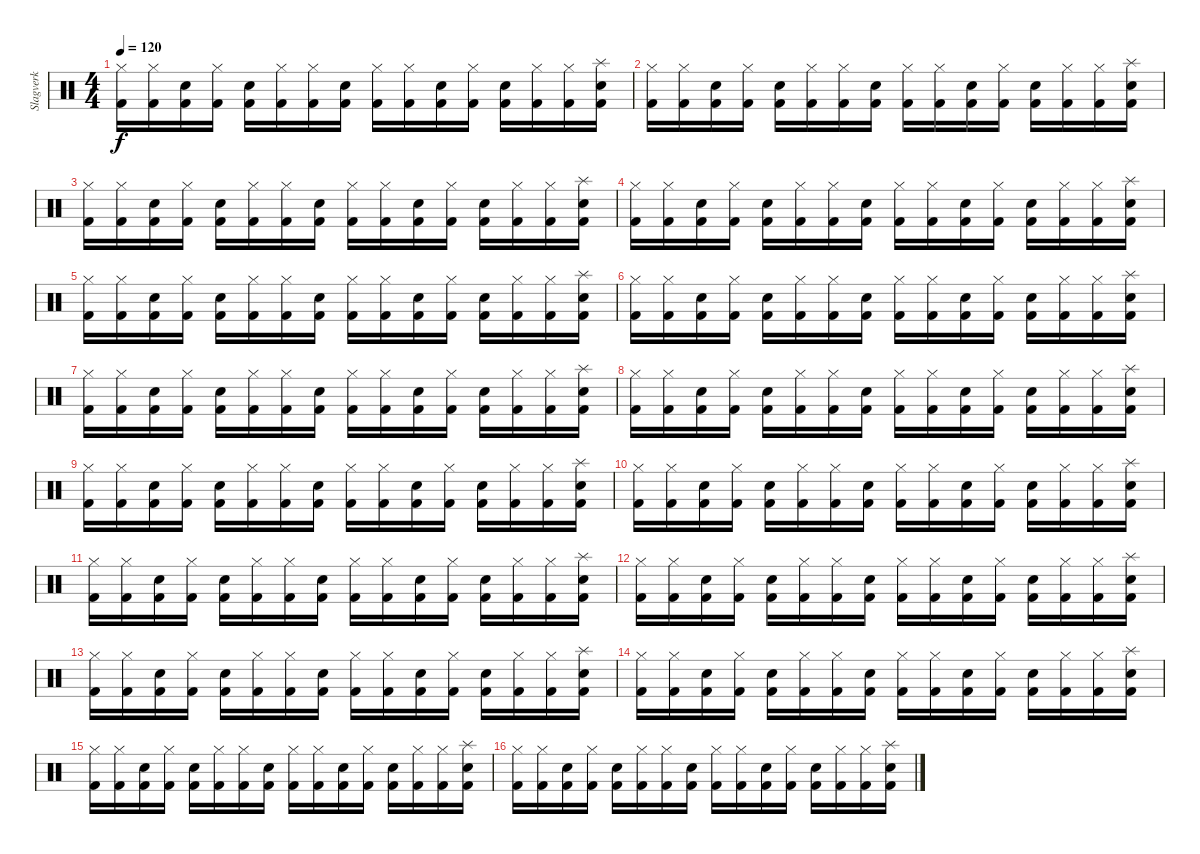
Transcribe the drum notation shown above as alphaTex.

\track ("Slagverk" "Slagverk") {instrument percussion}
\staff {score}
\articulation defaults
\ts (4 4)
\tempo 120
\clef neutral
\ks c
("Kick (hit) 2" "Hi-Hat (closed)").16{dy f} ("Kick (hit) 2" "Hi-Hat (closed)").16 ("Kick (hit) 2" "Snare (hit) 2").16 ("Kick (hit) 2" "Hi-Hat (closed)").16 ("Kick (hit) 2" "Snare (hit) 2").16 ("Kick (hit) 2" "Hi-Hat (closed)").16 ("Kick (hit) 2" "Hi-Hat (closed)").16 ("Kick (hit) 2" "Snare (hit) 2").16 ("Kick (hit) 2" "Hi-Hat (closed)").16 ("Kick (hit) 2" "Hi-Hat (closed)").16 ("Kick (hit) 2" "Snare (hit) 2").16 ("Kick (hit) 2" "Hi-Hat (closed)").16 ("Kick (hit) 2" "Snare (hit) 2").16 ("Kick (hit) 2" "Hi-Hat (closed)").16 ("Kick (hit) 2" "Hi-Hat (closed)").16 ("Kick (hit) 2" "Splash (hit)" "Snare (hit) 2").16 |
("Kick (hit) 2" "Hi-Hat (closed)").16 ("Kick (hit) 2" "Hi-Hat (closed)").16 ("Kick (hit) 2" "Snare (hit) 2").16 ("Kick (hit) 2" "Hi-Hat (closed)").16 ("Kick (hit) 2" "Snare (hit) 2").16 ("Kick (hit) 2" "Hi-Hat (closed)").16 ("Kick (hit) 2" "Hi-Hat (closed)").16 ("Kick (hit) 2" "Snare (hit) 2").16 ("Kick (hit) 2" "Hi-Hat (closed)").16 ("Kick (hit) 2" "Hi-Hat (closed)").16 ("Kick (hit) 2" "Snare (hit) 2").16 ("Kick (hit) 2" "Hi-Hat (closed)").16 ("Kick (hit) 2" "Snare (hit) 2").16 ("Kick (hit) 2" "Hi-Hat (closed)").16 ("Kick (hit) 2" "Hi-Hat (closed)").16 ("Kick (hit) 2" "Splash (hit)" "Snare (hit) 2").16 |
("Kick (hit) 2" "Hi-Hat (closed)").16 ("Kick (hit) 2" "Hi-Hat (closed)").16 ("Kick (hit) 2" "Snare (hit) 2").16 ("Kick (hit) 2" "Hi-Hat (closed)").16 ("Kick (hit) 2" "Snare (hit) 2").16 ("Kick (hit) 2" "Hi-Hat (closed)").16 ("Kick (hit) 2" "Hi-Hat (closed)").16 ("Kick (hit) 2" "Snare (hit) 2").16 ("Kick (hit) 2" "Hi-Hat (closed)").16 ("Kick (hit) 2" "Hi-Hat (closed)").16 ("Kick (hit) 2" "Snare (hit) 2").16 ("Kick (hit) 2" "Hi-Hat (closed)").16 ("Kick (hit) 2" "Snare (hit) 2").16 ("Kick (hit) 2" "Hi-Hat (closed)").16 ("Kick (hit) 2" "Hi-Hat (closed)").16 ("Kick (hit) 2" "Splash (hit)" "Snare (hit) 2").16 |
("Kick (hit) 2" "Hi-Hat (closed)").16 ("Kick (hit) 2" "Hi-Hat (closed)").16 ("Kick (hit) 2" "Snare (hit) 2").16 ("Kick (hit) 2" "Hi-Hat (closed)").16 ("Kick (hit) 2" "Snare (hit) 2").16 ("Kick (hit) 2" "Hi-Hat (closed)").16 ("Kick (hit) 2" "Hi-Hat (closed)").16 ("Kick (hit) 2" "Snare (hit) 2").16 ("Kick (hit) 2" "Hi-Hat (closed)").16 ("Kick (hit) 2" "Hi-Hat (closed)").16 ("Kick (hit) 2" "Snare (hit) 2").16 ("Kick (hit) 2" "Hi-Hat (closed)").16 ("Kick (hit) 2" "Snare (hit) 2").16 ("Kick (hit) 2" "Hi-Hat (closed)").16 ("Kick (hit) 2" "Hi-Hat (closed)").16 ("Kick (hit) 2" "Splash (hit)" "Snare (hit) 2").16 |
("Kick (hit) 2" "Hi-Hat (closed)").16 ("Kick (hit) 2" "Hi-Hat (closed)").16 ("Kick (hit) 2" "Snare (hit) 2").16 ("Kick (hit) 2" "Hi-Hat (closed)").16 ("Kick (hit) 2" "Snare (hit) 2").16 ("Kick (hit) 2" "Hi-Hat (closed)").16 ("Kick (hit) 2" "Hi-Hat (closed)").16 ("Kick (hit) 2" "Snare (hit) 2").16 ("Kick (hit) 2" "Hi-Hat (closed)").16 ("Kick (hit) 2" "Hi-Hat (closed)").16 ("Kick (hit) 2" "Snare (hit) 2").16 ("Kick (hit) 2" "Hi-Hat (closed)").16 ("Kick (hit) 2" "Snare (hit) 2").16 ("Kick (hit) 2" "Hi-Hat (closed)").16 ("Kick (hit) 2" "Hi-Hat (closed)").16 ("Kick (hit) 2" "Splash (hit)" "Snare (hit) 2").16 |
("Kick (hit) 2" "Hi-Hat (closed)").16 ("Kick (hit) 2" "Hi-Hat (closed)").16 ("Kick (hit) 2" "Snare (hit) 2").16 ("Kick (hit) 2" "Hi-Hat (closed)").16 ("Kick (hit) 2" "Snare (hit) 2").16 ("Kick (hit) 2" "Hi-Hat (closed)").16 ("Kick (hit) 2" "Hi-Hat (closed)").16 ("Kick (hit) 2" "Snare (hit) 2").16 ("Kick (hit) 2" "Hi-Hat (closed)").16 ("Kick (hit) 2" "Hi-Hat (closed)").16 ("Kick (hit) 2" "Snare (hit) 2").16 ("Kick (hit) 2" "Hi-Hat (closed)").16 ("Kick (hit) 2" "Snare (hit) 2").16 ("Kick (hit) 2" "Hi-Hat (closed)").16 ("Kick (hit) 2" "Hi-Hat (closed)").16 ("Kick (hit) 2" "Splash (hit)" "Snare (hit) 2").16 |
("Kick (hit) 2" "Hi-Hat (closed)").16 ("Kick (hit) 2" "Hi-Hat (closed)").16 ("Kick (hit) 2" "Snare (hit) 2").16 ("Kick (hit) 2" "Hi-Hat (closed)").16 ("Kick (hit) 2" "Snare (hit) 2").16 ("Kick (hit) 2" "Hi-Hat (closed)").16 ("Kick (hit) 2" "Hi-Hat (closed)").16 ("Kick (hit) 2" "Snare (hit) 2").16 ("Kick (hit) 2" "Hi-Hat (closed)").16 ("Kick (hit) 2" "Hi-Hat (closed)").16 ("Kick (hit) 2" "Snare (hit) 2").16 ("Kick (hit) 2" "Hi-Hat (closed)").16 ("Kick (hit) 2" "Snare (hit) 2").16 ("Kick (hit) 2" "Hi-Hat (closed)").16 ("Kick (hit) 2" "Hi-Hat (closed)").16 ("Kick (hit) 2" "Splash (hit)" "Snare (hit) 2").16 |
("Kick (hit) 2" "Hi-Hat (closed)").16 ("Kick (hit) 2" "Hi-Hat (closed)").16 ("Kick (hit) 2" "Snare (hit) 2").16 ("Kick (hit) 2" "Hi-Hat (closed)").16 ("Kick (hit) 2" "Snare (hit) 2").16 ("Kick (hit) 2" "Hi-Hat (closed)").16 ("Kick (hit) 2" "Hi-Hat (closed)").16 ("Kick (hit) 2" "Snare (hit) 2").16 ("Kick (hit) 2" "Hi-Hat (closed)").16 ("Kick (hit) 2" "Hi-Hat (closed)").16 ("Kick (hit) 2" "Snare (hit) 2").16 ("Kick (hit) 2" "Hi-Hat (closed)").16 ("Kick (hit) 2" "Snare (hit) 2").16 ("Kick (hit) 2" "Hi-Hat (closed)").16 ("Kick (hit) 2" "Hi-Hat (closed)").16 ("Kick (hit) 2" "Splash (hit)" "Snare (hit) 2").16 |
("Kick (hit) 2" "Hi-Hat (closed)").16 ("Kick (hit) 2" "Hi-Hat (closed)").16 ("Kick (hit) 2" "Snare (hit) 2").16 ("Kick (hit) 2" "Hi-Hat (closed)").16 ("Kick (hit) 2" "Snare (hit) 2").16 ("Kick (hit) 2" "Hi-Hat (closed)").16 ("Kick (hit) 2" "Hi-Hat (closed)").16 ("Kick (hit) 2" "Snare (hit) 2").16 ("Kick (hit) 2" "Hi-Hat (closed)").16 ("Kick (hit) 2" "Hi-Hat (closed)").16 ("Kick (hit) 2" "Snare (hit) 2").16 ("Kick (hit) 2" "Hi-Hat (closed)").16 ("Kick (hit) 2" "Snare (hit) 2").16 ("Kick (hit) 2" "Hi-Hat (closed)").16 ("Kick (hit) 2" "Hi-Hat (closed)").16 ("Kick (hit) 2" "Splash (hit)" "Snare (hit) 2").16 |
("Kick (hit) 2" "Hi-Hat (closed)").16 ("Kick (hit) 2" "Hi-Hat (closed)").16 ("Kick (hit) 2" "Snare (hit) 2").16 ("Kick (hit) 2" "Hi-Hat (closed)").16 ("Kick (hit) 2" "Snare (hit) 2").16 ("Kick (hit) 2" "Hi-Hat (closed)").16 ("Kick (hit) 2" "Hi-Hat (closed)").16 ("Kick (hit) 2" "Snare (hit) 2").16 ("Kick (hit) 2" "Hi-Hat (closed)").16 ("Kick (hit) 2" "Hi-Hat (closed)").16 ("Kick (hit) 2" "Snare (hit) 2").16 ("Kick (hit) 2" "Hi-Hat (closed)").16 ("Kick (hit) 2" "Snare (hit) 2").16 ("Kick (hit) 2" "Hi-Hat (closed)").16 ("Kick (hit) 2" "Hi-Hat (closed)").16 ("Kick (hit) 2" "Splash (hit)" "Snare (hit) 2").16 |
("Kick (hit) 2" "Hi-Hat (closed)").16 ("Kick (hit) 2" "Hi-Hat (closed)").16 ("Kick (hit) 2" "Snare (hit) 2").16 ("Kick (hit) 2" "Hi-Hat (closed)").16 ("Kick (hit) 2" "Snare (hit) 2").16 ("Kick (hit) 2" "Hi-Hat (closed)").16 ("Kick (hit) 2" "Hi-Hat (closed)").16 ("Kick (hit) 2" "Snare (hit) 2").16 ("Kick (hit) 2" "Hi-Hat (closed)").16 ("Kick (hit) 2" "Hi-Hat (closed)").16 ("Kick (hit) 2" "Snare (hit) 2").16 ("Kick (hit) 2" "Hi-Hat (closed)").16 ("Kick (hit) 2" "Snare (hit) 2").16 ("Kick (hit) 2" "Hi-Hat (closed)").16 ("Kick (hit) 2" "Hi-Hat (closed)").16 ("Kick (hit) 2" "Splash (hit)" "Snare (hit) 2").16 |
("Kick (hit) 2" "Hi-Hat (closed)").16 ("Kick (hit) 2" "Hi-Hat (closed)").16 ("Kick (hit) 2" "Snare (hit) 2").16 ("Kick (hit) 2" "Hi-Hat (closed)").16 ("Kick (hit) 2" "Snare (hit) 2").16 ("Kick (hit) 2" "Hi-Hat (closed)").16 ("Kick (hit) 2" "Hi-Hat (closed)").16 ("Kick (hit) 2" "Snare (hit) 2").16 ("Kick (hit) 2" "Hi-Hat (closed)").16 ("Kick (hit) 2" "Hi-Hat (closed)").16 ("Kick (hit) 2" "Snare (hit) 2").16 ("Kick (hit) 2" "Hi-Hat (closed)").16 ("Kick (hit) 2" "Snare (hit) 2").16 ("Kick (hit) 2" "Hi-Hat (closed)").16 ("Kick (hit) 2" "Hi-Hat (closed)").16 ("Kick (hit) 2" "Splash (hit)" "Snare (hit) 2").16 |
("Kick (hit) 2" "Hi-Hat (closed)").16 ("Kick (hit) 2" "Hi-Hat (closed)").16 ("Kick (hit) 2" "Snare (hit) 2").16 ("Kick (hit) 2" "Hi-Hat (closed)").16 ("Kick (hit) 2" "Snare (hit) 2").16 ("Kick (hit) 2" "Hi-Hat (closed)").16 ("Kick (hit) 2" "Hi-Hat (closed)").16 ("Kick (hit) 2" "Snare (hit) 2").16 ("Kick (hit) 2" "Hi-Hat (closed)").16 ("Kick (hit) 2" "Hi-Hat (closed)").16 ("Kick (hit) 2" "Snare (hit) 2").16 ("Kick (hit) 2" "Hi-Hat (closed)").16 ("Kick (hit) 2" "Snare (hit) 2").16 ("Kick (hit) 2" "Hi-Hat (closed)").16 ("Kick (hit) 2" "Hi-Hat (closed)").16 ("Kick (hit) 2" "Splash (hit)" "Snare (hit) 2").16 |
("Kick (hit) 2" "Hi-Hat (closed)").16 ("Kick (hit) 2" "Hi-Hat (closed)").16 ("Kick (hit) 2" "Snare (hit) 2").16 ("Kick (hit) 2" "Hi-Hat (closed)").16 ("Kick (hit) 2" "Snare (hit) 2").16 ("Kick (hit) 2" "Hi-Hat (closed)").16 ("Kick (hit) 2" "Hi-Hat (closed)").16 ("Kick (hit) 2" "Snare (hit) 2").16 ("Kick (hit) 2" "Hi-Hat (closed)").16 ("Kick (hit) 2" "Hi-Hat (closed)").16 ("Kick (hit) 2" "Snare (hit) 2").16 ("Kick (hit) 2" "Hi-Hat (closed)").16 ("Kick (hit) 2" "Snare (hit) 2").16 ("Kick (hit) 2" "Hi-Hat (closed)").16 ("Kick (hit) 2" "Hi-Hat (closed)").16 ("Kick (hit) 2" "Splash (hit)" "Snare (hit) 2").16 |
("Kick (hit) 2" "Hi-Hat (closed)").16 ("Kick (hit) 2" "Hi-Hat (closed)").16 ("Kick (hit) 2" "Snare (hit) 2").16 ("Kick (hit) 2" "Hi-Hat (closed)").16 ("Kick (hit) 2" "Snare (hit) 2").16 ("Kick (hit) 2" "Hi-Hat (closed)").16 ("Kick (hit) 2" "Hi-Hat (closed)").16 ("Kick (hit) 2" "Snare (hit) 2").16 ("Kick (hit) 2" "Hi-Hat (closed)").16 ("Kick (hit) 2" "Hi-Hat (closed)").16 ("Kick (hit) 2" "Snare (hit) 2").16 ("Kick (hit) 2" "Hi-Hat (closed)").16 ("Kick (hit) 2" "Snare (hit) 2").16 ("Kick (hit) 2" "Hi-Hat (closed)").16 ("Kick (hit) 2" "Hi-Hat (closed)").16 ("Kick (hit) 2" "Splash (hit)" "Snare (hit) 2").16 |
("Kick (hit) 2" "Hi-Hat (closed)").16 ("Kick (hit) 2" "Hi-Hat (closed)").16 ("Kick (hit) 2" "Snare (hit) 2").16 ("Kick (hit) 2" "Hi-Hat (closed)").16 ("Kick (hit) 2" "Snare (hit) 2").16 ("Kick (hit) 2" "Hi-Hat (closed)").16 ("Kick (hit) 2" "Hi-Hat (closed)").16 ("Kick (hit) 2" "Snare (hit) 2").16 ("Kick (hit) 2" "Hi-Hat (closed)").16 ("Kick (hit) 2" "Hi-Hat (closed)").16 ("Kick (hit) 2" "Snare (hit) 2").16 ("Kick (hit) 2" "Hi-Hat (closed)").16 ("Kick (hit) 2" "Snare (hit) 2").16 ("Kick (hit) 2" "Hi-Hat (closed)").16 ("Kick (hit) 2" "Hi-Hat (closed)").16 ("Kick (hit) 2" "Splash (hit)" "Snare (hit) 2").16
